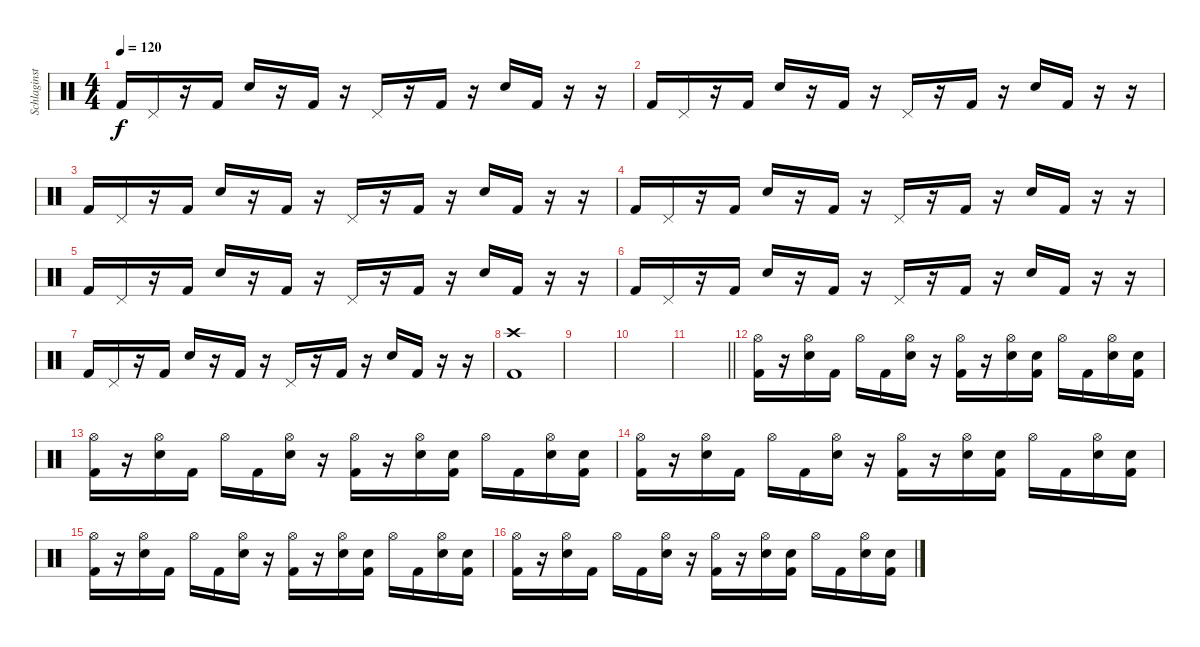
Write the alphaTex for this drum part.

\track ("Schlaginstrumente - Auswahl" "Schlaginst") {instrument percussion}
\staff {score}
\articulation defaults
\ts (4 4)
\tempo 120
\clef neutral
\ks c "Kick (hit) 2".16{dy f} "Pedal Hi-Hat (hit)".16
r.16 "Kick (hit) 2".16 "Snare (hit) 2".16 r.16 "Kick (hit) 2".16 r.16 "Pedal Hi-Hat (hit)".16 r.16 "Kick (hit) 2".16 r.16 "Snare (hit) 2".16 "Kick (hit) 2".16 r.16 r.16 |
"Kick (hit) 2".16 "Pedal Hi-Hat (hit)".16 r.16 "Kick (hit) 2".16 "Snare (hit) 2".16 r.16 "Kick (hit) 2".16 r.16 "Pedal Hi-Hat (hit)".16 r.16 "Kick (hit) 2".16 r.16 "Snare (hit) 2".16 "Kick (hit) 2".16 r.16 r.16 |
"Kick (hit) 2".16 "Pedal Hi-Hat (hit)".16 r.16 "Kick (hit) 2".16 "Snare (hit) 2".16 r.16 "Kick (hit) 2".16 r.16 "Pedal Hi-Hat (hit)".16 r.16 "Kick (hit) 2".16 r.16 "Snare (hit) 2".16 "Kick (hit) 2".16 r.16 r.16 |
"Kick (hit) 2".16 "Pedal Hi-Hat (hit)".16 r.16 "Kick (hit) 2".16 "Snare (hit) 2".16 r.16 "Kick (hit) 2".16 r.16 "Pedal Hi-Hat (hit)".16 r.16 "Kick (hit) 2".16 r.16 "Snare (hit) 2".16 "Kick (hit) 2".16 r.16 r.16 |
"Kick (hit) 2".16 "Pedal Hi-Hat (hit)".16 r.16 "Kick (hit) 2".16 "Snare (hit) 2".16 r.16 "Kick (hit) 2".16 r.16 "Pedal Hi-Hat (hit)".16 r.16 "Kick (hit) 2".16 r.16 "Snare (hit) 2".16 "Kick (hit) 2".16 r.16 r.16 |
"Kick (hit) 2".16 "Pedal Hi-Hat (hit)".16 r.16 "Kick (hit) 2".16 "Snare (hit) 2".16 r.16 "Kick (hit) 2".16 r.16 "Pedal Hi-Hat (hit)".16 r.16 "Kick (hit) 2".16 r.16 "Snare (hit) 2".16 "Kick (hit) 2".16 r.16 r.16 |
"Kick (hit) 2".16 "Pedal Hi-Hat (hit)".16 r.16 "Kick (hit) 2".16 "Snare (hit) 2".16 r.16 "Kick (hit) 2".16 r.16 "Pedal Hi-Hat (hit)".16 r.16 "Kick (hit) 2".16 r.16 "Snare (hit) 2".16 "Kick (hit) 2".16 r.16 r.16 |
("Crash high (hit)" "Kick (hit) 2").1 |
|
|
\barLineRight lightlight
|
\section ("" "")
("Kick (hit) 2" "Hi-Hat (open)").16 r.16 ("Snare (hit) 2" "Hi-Hat (open)").16 "Kick (hit) 2".16 "Hi-Hat (open)".16 "Kick (hit) 2".16 ("Snare (hit) 2" "Hi-Hat (open)").16 r.16 ("Kick (hit) 2" "Hi-Hat (open)").16 r.16 ("Snare (hit) 2" "Hi-Hat (open)").16 ("Snare (hit) 2" "Kick (hit) 2").16 "Hi-Hat (open)".16 "Kick (hit) 2".16 ("Snare (hit) 2" "Hi-Hat (open)").16 ("Snare (hit) 2" "Kick (hit) 2").16 |
("Kick (hit) 2" "Hi-Hat (open)").16 r.16 ("Snare (hit) 2" "Hi-Hat (open)").16 "Kick (hit) 2".16 "Hi-Hat (open)".16 "Kick (hit) 2".16 ("Snare (hit) 2" "Hi-Hat (open)").16 r.16 ("Kick (hit) 2" "Hi-Hat (open)").16 r.16 ("Snare (hit) 2" "Hi-Hat (open)").16 ("Snare (hit) 2" "Kick (hit) 2").16 "Hi-Hat (open)".16 "Kick (hit) 2".16 ("Snare (hit) 2" "Hi-Hat (open)").16 ("Snare (hit) 2" "Kick (hit) 2").16 |
("Kick (hit) 2" "Hi-Hat (open)").16 r.16 ("Snare (hit) 2" "Hi-Hat (open)").16 "Kick (hit) 2".16 "Hi-Hat (open)".16 "Kick (hit) 2".16 ("Snare (hit) 2" "Hi-Hat (open)").16 r.16 ("Kick (hit) 2" "Hi-Hat (open)").16 r.16 ("Snare (hit) 2" "Hi-Hat (open)").16 ("Snare (hit) 2" "Kick (hit) 2").16 "Hi-Hat (open)".16 "Kick (hit) 2".16 ("Snare (hit) 2" "Hi-Hat (open)").16 ("Snare (hit) 2" "Kick (hit) 2").16 |
("Kick (hit) 2" "Hi-Hat (open)").16 r.16 ("Snare (hit) 2" "Hi-Hat (open)").16 "Kick (hit) 2".16 "Hi-Hat (open)".16 "Kick (hit) 2".16 ("Snare (hit) 2" "Hi-Hat (open)").16 r.16 ("Kick (hit) 2" "Hi-Hat (open)").16 r.16 ("Snare (hit) 2" "Hi-Hat (open)").16 ("Snare (hit) 2" "Kick (hit) 2").16 "Hi-Hat (open)".16 "Kick (hit) 2".16 ("Snare (hit) 2" "Hi-Hat (open)").16 ("Snare (hit) 2" "Kick (hit) 2").16 |
("Kick (hit) 2" "Hi-Hat (open)").16 r.16 ("Snare (hit) 2" "Hi-Hat (open)").16 "Kick (hit) 2".16 "Hi-Hat (open)".16 "Kick (hit) 2".16 ("Snare (hit) 2" "Hi-Hat (open)").16 r.16 ("Kick (hit) 2" "Hi-Hat (open)").16 r.16 ("Snare (hit) 2" "Hi-Hat (open)").16 ("Snare (hit) 2" "Kick (hit) 2").16 "Hi-Hat (open)".16 "Kick (hit) 2".16 ("Snare (hit) 2" "Hi-Hat (open)").16 ("Snare (hit) 2" "Kick (hit) 2").16
